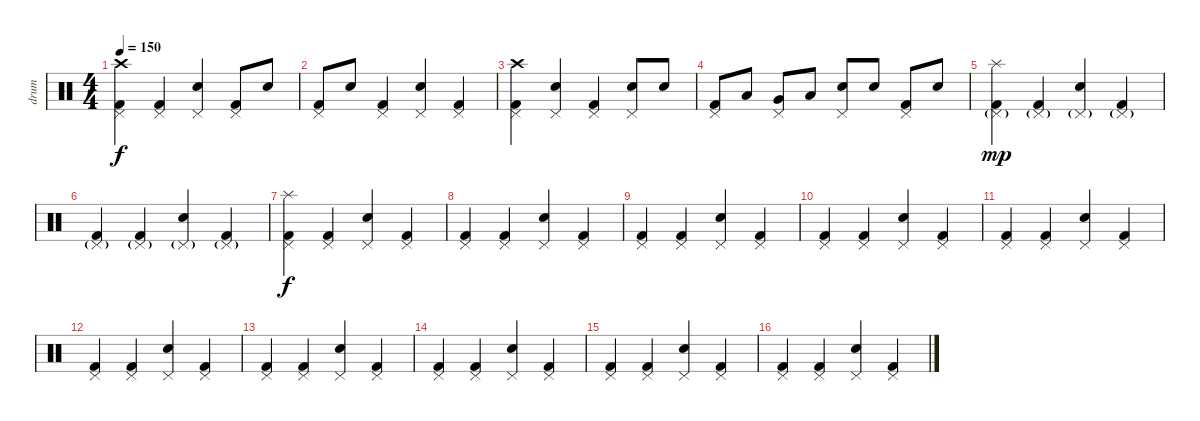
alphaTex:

\track ("drum" "drum") {instrument percussion}
\staff {score}
\articulation defaults
\ts (4 4)
\tempo 150
\clef neutral
\ks c
("Crash high (hit)" "Pedal Hi-Hat (hit)" "Kick (hit) 2").4{dy f} ("Pedal Hi-Hat (hit)" "Kick (hit) 2").4 ("Pedal Hi-Hat (hit)" "Electric Snare (hit)").4 ("Pedal Hi-Hat (hit)" "Kick (hit) 2").8 "Electric Snare (hit)".8 |
("Pedal Hi-Hat (hit)" "Kick (hit) 2").8 "Electric Snare (hit)".8 ("Pedal Hi-Hat (hit)" "Kick (hit) 2").4 ("Pedal Hi-Hat (hit)" "Electric Snare (hit)").4 ("Pedal Hi-Hat (hit)" "Kick (hit) 2").4 |
("Crash high (hit)" "Pedal Hi-Hat (hit)" "Kick (hit) 2").4 ("Pedal Hi-Hat (hit)" "Electric Snare (hit)").4 ("Pedal Hi-Hat (hit)" "Kick (hit) 2").4 ("Pedal Hi-Hat (hit)" "Electric Snare (hit)").8 "Electric Snare (hit)".8 |
("Pedal Hi-Hat (hit)" "Kick (hit) 2").8 "Low Tom (hit)".8 ("Pedal Hi-Hat (hit)" "Very Low Tom (hit)").8 "Low Floor Tom (hit)".8 ("Pedal Hi-Hat (hit)" "Electric Snare (hit)").8 "Electric Snare (hit)".8 ("Pedal Hi-Hat (hit)" "Kick (hit) 2").8 "Electric Snare (hit)".8 |
("Splash (hit)" "Pedal Hi-Hat (hit)"{g} "Kick (hit) 2").4{dy mp} ("Pedal Hi-Hat (hit)"{g} "Kick (hit) 2").4 ("Pedal Hi-Hat (hit)"{g} "Electric Snare (hit)").4 ("Pedal Hi-Hat (hit)"{g} "Kick (hit) 2").4 |
("Pedal Hi-Hat (hit)"{g} "Kick (hit) 2").4 ("Pedal Hi-Hat (hit)"{g} "Kick (hit) 2").4 ("Pedal Hi-Hat (hit)"{g} "Electric Snare (hit)").4 ("Pedal Hi-Hat (hit)"{g} "Kick (hit) 2").4 |
("Splash (hit)" "Pedal Hi-Hat (hit)" "Kick (hit) 2").4{dy f} ("Pedal Hi-Hat (hit)" "Kick (hit) 2").4 ("Pedal Hi-Hat (hit)" "Electric Snare (hit)").4 ("Pedal Hi-Hat (hit)" "Kick (hit) 2").4 |
("Pedal Hi-Hat (hit)" "Kick (hit) 2").4 ("Pedal Hi-Hat (hit)" "Kick (hit) 2").4 ("Pedal Hi-Hat (hit)" "Electric Snare (hit)").4 ("Pedal Hi-Hat (hit)" "Kick (hit) 2").4 |
("Pedal Hi-Hat (hit)" "Kick (hit) 2").4 ("Pedal Hi-Hat (hit)" "Kick (hit) 2").4 ("Pedal Hi-Hat (hit)" "Electric Snare (hit)").4 ("Pedal Hi-Hat (hit)" "Kick (hit) 2").4 |
("Pedal Hi-Hat (hit)" "Kick (hit) 2").4 ("Pedal Hi-Hat (hit)" "Kick (hit) 2").4 ("Pedal Hi-Hat (hit)" "Electric Snare (hit)").4 ("Pedal Hi-Hat (hit)" "Kick (hit) 2").4 |
("Pedal Hi-Hat (hit)" "Kick (hit) 2").4 ("Pedal Hi-Hat (hit)" "Kick (hit) 2").4 ("Pedal Hi-Hat (hit)" "Electric Snare (hit)").4 ("Pedal Hi-Hat (hit)" "Kick (hit) 2").4 |
("Pedal Hi-Hat (hit)" "Kick (hit) 2").4 ("Pedal Hi-Hat (hit)" "Kick (hit) 2").4 ("Pedal Hi-Hat (hit)" "Electric Snare (hit)").4 ("Pedal Hi-Hat (hit)" "Kick (hit) 2").4 |
("Pedal Hi-Hat (hit)" "Kick (hit) 2").4 ("Pedal Hi-Hat (hit)" "Kick (hit) 2").4 ("Pedal Hi-Hat (hit)" "Electric Snare (hit)").4 ("Pedal Hi-Hat (hit)" "Kick (hit) 2").4 |
("Pedal Hi-Hat (hit)" "Kick (hit) 2").4 ("Pedal Hi-Hat (hit)" "Kick (hit) 2").4 ("Pedal Hi-Hat (hit)" "Electric Snare (hit)").4 ("Pedal Hi-Hat (hit)" "Kick (hit) 2").4 |
("Pedal Hi-Hat (hit)" "Kick (hit) 2").4 ("Pedal Hi-Hat (hit)" "Kick (hit) 2").4 ("Pedal Hi-Hat (hit)" "Electric Snare (hit)").4 ("Pedal Hi-Hat (hit)" "Kick (hit) 2").4 |
("Pedal Hi-Hat (hit)" "Kick (hit) 2").4 ("Pedal Hi-Hat (hit)" "Kick (hit) 2").4 ("Pedal Hi-Hat (hit)" "Electric Snare (hit)").4 ("Pedal Hi-Hat (hit)" "Kick (hit) 2").4
